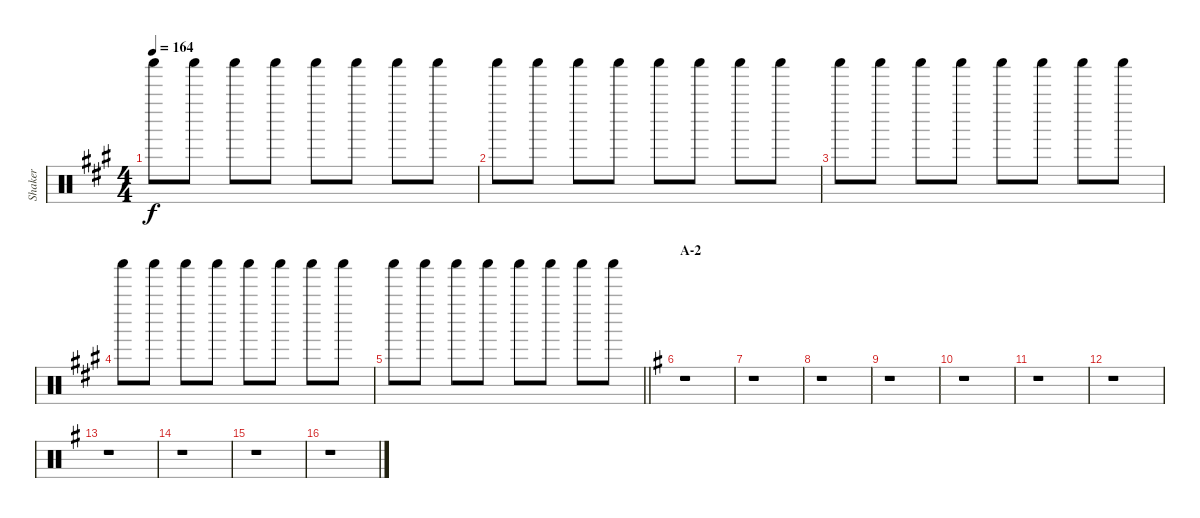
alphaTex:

\track ("Shaker" "Shaker") {instrument percussion}
\staff {score}
\articulation defaults
\ts (4 4)
\tempo 164
\clef neutral
\ks a "Shaker (hit)".8{dy f} "Shaker (hit)".8 "Shaker (hit)".8 "Shaker (hit)".8 "Shaker (hit)".8 "Shaker (hit)".8 "Shaker (hit)".8 "Shaker (hit)".8
|
"Shaker (hit)".8 "Shaker (hit)".8 "Shaker (hit)".8 "Shaker (hit)".8 "Shaker (hit)".8 "Shaker (hit)".8 "Shaker (hit)".8 "Shaker (hit)".8 |
"Shaker (hit)".8 "Shaker (hit)".8 "Shaker (hit)".8 "Shaker (hit)".8 "Shaker (hit)".8 "Shaker (hit)".8 "Shaker (hit)".8 "Shaker (hit)".8 |
"Shaker (hit)".8 "Shaker (hit)".8 "Shaker (hit)".8 "Shaker (hit)".8 "Shaker (hit)".8 "Shaker (hit)".8 "Shaker (hit)".8 "Shaker (hit)".8 |
\barLineRight lightlight "Shaker (hit)".8 "Shaker (hit)".8 "Shaker (hit)".8 "Shaker (hit)".8 "Shaker (hit)".8 "Shaker (hit)".8 "Shaker (hit)".8 "Shaker (hit)".8
|
\section ("" "A-2")
\ks g
r.1 |
r.1 |
r.1 |
r.1 |
r.1 |
r.1 |
r.1 |
r.1 |
r.1 |
r.1 |
r.1
